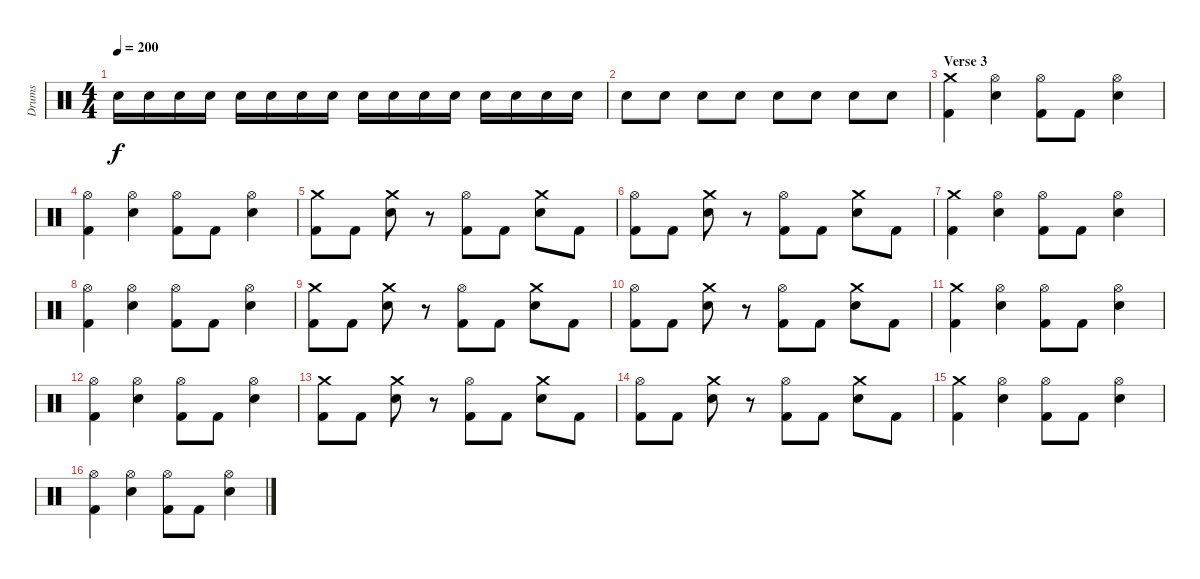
\track ("Drums" "Drums") {instrument percussion}
\staff {score}
\articulation defaults
\ts (4 4)
\tempo 200
\clef neutral
\ks c "Snare (hit) 2".16{dy f} "Snare (hit) 2".16 "Snare (hit) 2".16 "Snare (hit) 2".16 "Snare (hit) 2".16 "Snare (hit) 2".16 "Snare (hit) 2".16 "Snare (hit) 2".16 "Snare (hit) 2".16 "Snare (hit) 2".16 "Snare (hit) 2".16 "Snare (hit) 2".16 "Snare (hit) 2".16 "Snare (hit) 2".16 "Snare (hit) 2".16 "Snare (hit) 2".16
|
"Snare (hit) 2".8 "Snare (hit) 2".8 "Snare (hit) 2".8 "Snare (hit) 2".8 "Snare (hit) 2".8 "Snare (hit) 2".8 "Snare (hit) 2".8 "Snare (hit) 2".8 |
\section ("" "Verse 3")
("Crash medium (hit)" "Kick (hit) 2").4 ("Hi-Hat (open)" "Electric Snare (hit)").4 ("Hi-Hat (open)" "Kick (hit) 2").8 "Kick (hit) 2".8 ("Hi-Hat (open)" "Electric Snare (hit)").4 |
("Hi-Hat (open)" "Kick (hit) 2").4 ("Hi-Hat (open)" "Electric Snare (hit)").4 ("Hi-Hat (open)" "Kick (hit) 2").8 "Kick (hit) 2".8 ("Hi-Hat (open)" "Electric Snare (hit)").4 |
("Crash medium (hit)" "Kick (hit) 2").8 "Kick (hit) 2".8 ("Crash medium (hit)" "Snare (hit) 2").8 r.8 ("Hi-Hat (open)" "Kick (hit) 2").8 "Kick (hit) 2".8 ("Crash medium (hit)" "Snare (hit) 2").8 "Kick (hit) 2".8 |
("Hi-Hat (open)" "Kick (hit) 2").8 "Kick (hit) 2".8 ("Crash medium (hit)" "Snare (hit) 2").8 r.8 ("Hi-Hat (open)" "Kick (hit) 2").8 "Kick (hit) 2".8 ("Crash medium (hit)" "Snare (hit) 2").8 "Kick (hit) 2".8 |
("Crash medium (hit)" "Kick (hit) 2").4 ("Hi-Hat (open)" "Electric Snare (hit)").4 ("Hi-Hat (open)" "Kick (hit) 2").8 "Kick (hit) 2".8 ("Hi-Hat (open)" "Electric Snare (hit)").4 |
("Hi-Hat (open)" "Kick (hit) 2").4 ("Hi-Hat (open)" "Electric Snare (hit)").4 ("Hi-Hat (open)" "Kick (hit) 2").8 "Kick (hit) 2".8 ("Hi-Hat (open)" "Electric Snare (hit)").4 |
("Crash medium (hit)" "Kick (hit) 2").8 "Kick (hit) 2".8 ("Crash medium (hit)" "Snare (hit) 2").8 r.8 ("Hi-Hat (open)" "Kick (hit) 2").8 "Kick (hit) 2".8 ("Crash medium (hit)" "Snare (hit) 2").8 "Kick (hit) 2".8 |
("Hi-Hat (open)" "Kick (hit) 2").8 "Kick (hit) 2".8 ("Crash medium (hit)" "Snare (hit) 2").8 r.8 ("Hi-Hat (open)" "Kick (hit) 2").8 "Kick (hit) 2".8 ("Crash medium (hit)" "Snare (hit) 2").8 "Kick (hit) 2".8 |
("Crash medium (hit)" "Kick (hit) 2").4 ("Hi-Hat (open)" "Electric Snare (hit)").4 ("Hi-Hat (open)" "Kick (hit) 2").8 "Kick (hit) 2".8 ("Hi-Hat (open)" "Electric Snare (hit)").4 |
("Hi-Hat (open)" "Kick (hit) 2").4 ("Hi-Hat (open)" "Electric Snare (hit)").4 ("Hi-Hat (open)" "Kick (hit) 2").8 "Kick (hit) 2".8 ("Hi-Hat (open)" "Electric Snare (hit)").4 |
("Crash medium (hit)" "Kick (hit) 2").8 "Kick (hit) 2".8 ("Crash medium (hit)" "Snare (hit) 2").8 r.8 ("Hi-Hat (open)" "Kick (hit) 2").8 "Kick (hit) 2".8 ("Crash medium (hit)" "Snare (hit) 2").8 "Kick (hit) 2".8 |
("Hi-Hat (open)" "Kick (hit) 2").8 "Kick (hit) 2".8 ("Crash medium (hit)" "Snare (hit) 2").8 r.8 ("Hi-Hat (open)" "Kick (hit) 2").8 "Kick (hit) 2".8 ("Crash medium (hit)" "Snare (hit) 2").8 "Kick (hit) 2".8 |
("Crash medium (hit)" "Kick (hit) 2").4 ("Hi-Hat (open)" "Electric Snare (hit)").4 ("Hi-Hat (open)" "Kick (hit) 2").8 "Kick (hit) 2".8 ("Hi-Hat (open)" "Electric Snare (hit)").4 |
("Hi-Hat (open)" "Kick (hit) 2").4 ("Hi-Hat (open)" "Electric Snare (hit)").4 ("Hi-Hat (open)" "Kick (hit) 2").8 "Kick (hit) 2".8 ("Hi-Hat (open)" "Electric Snare (hit)").4
